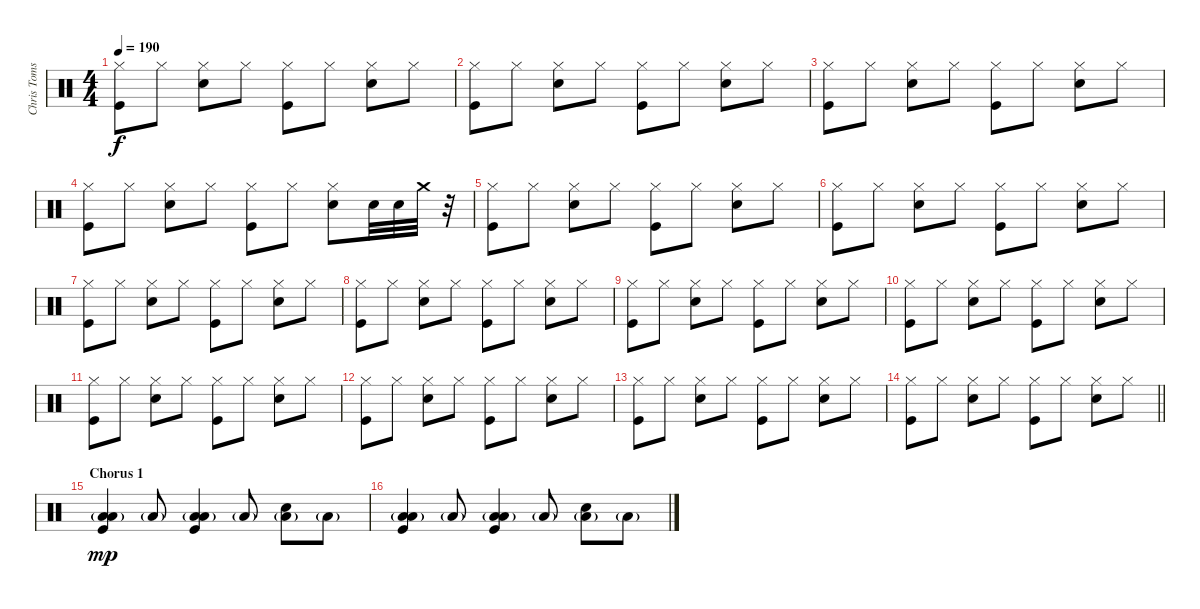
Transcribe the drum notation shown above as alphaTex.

\track ("Chris Tomson - Drums" "Chris Toms") {instrument percussion}
\staff {score}
\articulation defaults
\ts (4 4)
\tempo 190
\clef neutral
\ks c
("Kick (hit)" "Hi-Hat (closed)").8{dy f} "Hi-Hat (closed)".8 ("Snare (hit) 2" "Hi-Hat (closed)").8 "Hi-Hat (closed)".8 ("Kick (hit)" "Hi-Hat (closed)").8 "Hi-Hat (closed)".8 ("Snare (hit) 2" "Hi-Hat (closed)").8 "Hi-Hat (closed)".8 |
("Kick (hit)" "Hi-Hat (closed)").8 "Hi-Hat (closed)".8 ("Snare (hit) 2" "Hi-Hat (closed)").8 "Hi-Hat (closed)".8 ("Kick (hit)" "Hi-Hat (closed)").8 "Hi-Hat (closed)".8 ("Snare (hit) 2" "Hi-Hat (closed)").8 "Hi-Hat (closed)".8 |
("Kick (hit)" "Hi-Hat (closed)").8 "Hi-Hat (closed)".8 ("Snare (hit) 2" "Hi-Hat (closed)").8 "Hi-Hat (closed)".8 ("Kick (hit)" "Hi-Hat (closed)").8 "Hi-Hat (closed)".8 ("Snare (hit) 2" "Hi-Hat (closed)").8 "Hi-Hat (closed)".8 |
("Kick (hit)" "Hi-Hat (closed)").8 "Hi-Hat (closed)".8 ("Snare (hit) 2" "Hi-Hat (closed)").8 "Hi-Hat (closed)".8 ("Kick (hit)" "Hi-Hat (closed)").8 "Hi-Hat (closed)".8 ("Snare (hit) 2" "Hi-Hat (closed)").8 "Snare (hit) 2".32 "Snare (hit) 2".32 "Crash medium (hit)".32 r.32 |
("Kick (hit)" "Hi-Hat (closed)").8 "Hi-Hat (closed)".8 ("Snare (hit) 2" "Hi-Hat (closed)").8 "Hi-Hat (closed)".8 ("Kick (hit)" "Hi-Hat (closed)").8 "Hi-Hat (closed)".8 ("Snare (hit) 2" "Hi-Hat (closed)").8 "Hi-Hat (closed)".8 |
("Kick (hit)" "Hi-Hat (closed)").8 "Hi-Hat (closed)".8 ("Snare (hit) 2" "Hi-Hat (closed)").8 "Hi-Hat (closed)".8 ("Kick (hit)" "Hi-Hat (closed)").8 "Hi-Hat (closed)".8 ("Snare (hit) 2" "Hi-Hat (closed)").8 "Hi-Hat (closed)".8 |
("Kick (hit)" "Hi-Hat (closed)").8 "Hi-Hat (closed)".8 ("Snare (hit) 2" "Hi-Hat (closed)").8 "Hi-Hat (closed)".8 ("Kick (hit)" "Hi-Hat (closed)").8 "Hi-Hat (closed)".8 ("Snare (hit) 2" "Hi-Hat (closed)").8 "Hi-Hat (closed)".8 |
("Kick (hit)" "Hi-Hat (closed)").8 "Hi-Hat (closed)".8 ("Snare (hit) 2" "Hi-Hat (closed)").8 "Hi-Hat (closed)".8 ("Kick (hit)" "Hi-Hat (closed)").8 "Hi-Hat (closed)".8 ("Snare (hit) 2" "Hi-Hat (closed)").8 "Hi-Hat (closed)".8 |
("Kick (hit)" "Hi-Hat (closed)").8 "Hi-Hat (closed)".8 ("Snare (hit) 2" "Hi-Hat (closed)").8 "Hi-Hat (closed)".8 ("Kick (hit)" "Hi-Hat (closed)").8 "Hi-Hat (closed)".8 ("Snare (hit) 2" "Hi-Hat (closed)").8 "Hi-Hat (closed)".8 |
("Kick (hit)" "Hi-Hat (closed)").8 "Hi-Hat (closed)".8 ("Snare (hit) 2" "Hi-Hat (closed)").8 "Hi-Hat (closed)".8 ("Kick (hit)" "Hi-Hat (closed)").8 "Hi-Hat (closed)".8 ("Snare (hit) 2" "Hi-Hat (closed)").8 "Hi-Hat (closed)".8 |
("Kick (hit)" "Hi-Hat (closed)").8 "Hi-Hat (closed)".8 ("Snare (hit) 2" "Hi-Hat (closed)").8 "Hi-Hat (closed)".8 ("Kick (hit)" "Hi-Hat (closed)").8 "Hi-Hat (closed)".8 ("Snare (hit) 2" "Hi-Hat (closed)").8 "Hi-Hat (closed)".8 |
("Kick (hit)" "Hi-Hat (closed)").8 "Hi-Hat (closed)".8 ("Snare (hit) 2" "Hi-Hat (closed)").8 "Hi-Hat (closed)".8 ("Kick (hit)" "Hi-Hat (closed)").8 "Hi-Hat (closed)".8 ("Snare (hit) 2" "Hi-Hat (closed)").8 "Hi-Hat (closed)".8 |
("Kick (hit)" "Hi-Hat (closed)").8 "Hi-Hat (closed)".8 ("Snare (hit) 2" "Hi-Hat (closed)").8 "Hi-Hat (closed)".8 ("Kick (hit)" "Hi-Hat (closed)").8 "Hi-Hat (closed)".8 ("Snare (hit) 2" "Hi-Hat (closed)").8 "Hi-Hat (closed)".8 |
\barLineRight lightlight
("Kick (hit)" "Hi-Hat (closed)").8 "Hi-Hat (closed)".8 ("Snare (hit) 2" "Hi-Hat (closed)").8 "Hi-Hat (closed)".8 ("Kick (hit)" "Hi-Hat (closed)").8 "Hi-Hat (closed)".8 ("Snare (hit) 2" "Hi-Hat (closed)").8 "Hi-Hat (closed)".8 |
\section ("" "Chorus 1")
("Kick (hit)" "Low Tom (hit)" "Low Floor Tom (hit)"{g}).4{dy mp} "Low Floor Tom (hit)"{g}.8 ("Kick (hit)" "Low Tom (hit)" "Low Floor Tom (hit)"{g}).4 "Low Floor Tom (hit)"{g}.8 ("Snare (hit) 2" "Low Floor Tom (hit)"{g}).8 "Low Floor Tom (hit)"{g}.8 |
("Kick (hit)" "Low Tom (hit)" "Low Floor Tom (hit)"{g}).4 "Low Floor Tom (hit)"{g}.8 ("Kick (hit)" "Low Tom (hit)" "Low Floor Tom (hit)"{g}).4 "Low Floor Tom (hit)"{g}.8 ("Snare (hit) 2" "Low Floor Tom (hit)"{g}).8 "Low Floor Tom (hit)"{g}.8
